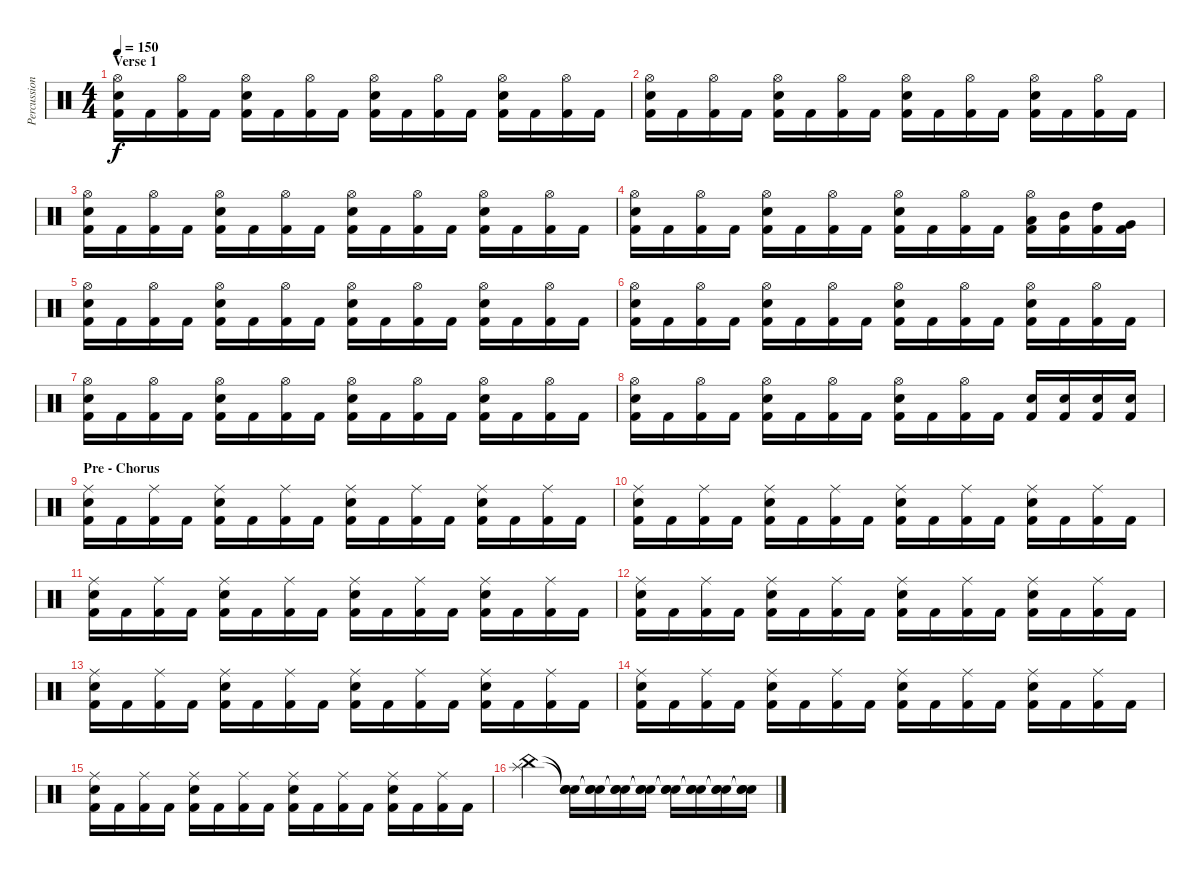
\track ("Percussion" "Percussion") {instrument percussion}
\staff {score}
\articulation defaults
\ts (4 4)
\section ("" "Verse 1")
\tempo 150
\clef neutral
\ks c
("Hi-Hat (open)" "Snare (hit) 2" "Kick (hit) 2").16{dy f} "Kick (hit) 2".16 ("Hi-Hat (open)" "Kick (hit) 2").16 "Kick (hit) 2".16 ("Hi-Hat (open)" "Snare (hit) 2" "Kick (hit) 2").16 "Kick (hit) 2".16 ("Hi-Hat (open)" "Kick (hit) 2").16 "Kick (hit) 2".16 ("Hi-Hat (open)" "Snare (hit) 2" "Kick (hit) 2").16 "Kick (hit) 2".16 ("Hi-Hat (open)" "Kick (hit) 2").16 "Kick (hit) 2".16 ("Hi-Hat (open)" "Snare (hit) 2" "Kick (hit) 2").16 "Kick (hit) 2".16 ("Hi-Hat (open)" "Kick (hit) 2").16 "Kick (hit) 2".16 |
("Hi-Hat (open)" "Snare (hit) 2" "Kick (hit) 2").16 "Kick (hit) 2".16 ("Hi-Hat (open)" "Kick (hit) 2").16 "Kick (hit) 2".16 ("Hi-Hat (open)" "Snare (hit) 2" "Kick (hit) 2").16 "Kick (hit) 2".16 ("Hi-Hat (open)" "Kick (hit) 2").16 "Kick (hit) 2".16 ("Hi-Hat (open)" "Snare (hit) 2" "Kick (hit) 2").16 "Kick (hit) 2".16 ("Hi-Hat (open)" "Kick (hit) 2").16 "Kick (hit) 2".16 ("Hi-Hat (open)" "Snare (hit) 2" "Kick (hit) 2").16 "Kick (hit) 2".16 ("Hi-Hat (open)" "Kick (hit) 2").16 "Kick (hit) 2".16 |
("Hi-Hat (open)" "Snare (hit) 2" "Kick (hit) 2").16 "Kick (hit) 2".16 ("Hi-Hat (open)" "Kick (hit) 2").16 "Kick (hit) 2".16 ("Hi-Hat (open)" "Snare (hit) 2" "Kick (hit) 2").16 "Kick (hit) 2".16 ("Hi-Hat (open)" "Kick (hit) 2").16 "Kick (hit) 2".16 ("Hi-Hat (open)" "Snare (hit) 2" "Kick (hit) 2").16 "Kick (hit) 2".16 ("Hi-Hat (open)" "Kick (hit) 2").16 "Kick (hit) 2".16 ("Hi-Hat (open)" "Snare (hit) 2" "Kick (hit) 2").16 "Kick (hit) 2".16 ("Hi-Hat (open)" "Kick (hit) 2").16 "Kick (hit) 2".16 |
("Hi-Hat (open)" "Snare (hit) 2" "Kick (hit) 2").16 "Kick (hit) 2".16 ("Hi-Hat (open)" "Kick (hit) 2").16 "Kick (hit) 2".16 ("Hi-Hat (open)" "Snare (hit) 2" "Kick (hit) 2").16 "Kick (hit) 2".16 ("Hi-Hat (open)" "Kick (hit) 2").16 "Kick (hit) 2".16 ("Hi-Hat (open)" "Snare (hit) 2" "Kick (hit) 2").16 "Kick (hit) 2".16 ("Hi-Hat (open)" "Kick (hit) 2").16 "Kick (hit) 2".16 ("Hi-Hat (open)" "Low Tom (hit)" "Kick (hit) 2").16 ("Mid Tom (hit)" "Kick (hit) 2").16 ("High Tom (hit)" "Kick (hit) 2").16 ("Very Low Tom (hit)" "Kick (hit) 2").16 |
("Hi-Hat (open)" "Snare (hit) 2" "Kick (hit) 2").16 "Kick (hit) 2".16 ("Hi-Hat (open)" "Kick (hit) 2").16 "Kick (hit) 2".16 ("Hi-Hat (open)" "Snare (hit) 2" "Kick (hit) 2").16 "Kick (hit) 2".16 ("Hi-Hat (open)" "Kick (hit) 2").16 "Kick (hit) 2".16 ("Hi-Hat (open)" "Snare (hit) 2" "Kick (hit) 2").16 "Kick (hit) 2".16 ("Hi-Hat (open)" "Kick (hit) 2").16 "Kick (hit) 2".16 ("Hi-Hat (open)" "Snare (hit) 2" "Kick (hit) 2").16 "Kick (hit) 2".16 ("Hi-Hat (open)" "Kick (hit) 2").16 "Kick (hit) 2".16 |
("Hi-Hat (open)" "Snare (hit) 2" "Kick (hit) 2").16 "Kick (hit) 2".16 ("Hi-Hat (open)" "Kick (hit) 2").16 "Kick (hit) 2".16 ("Hi-Hat (open)" "Snare (hit) 2" "Kick (hit) 2").16 "Kick (hit) 2".16 ("Hi-Hat (open)" "Kick (hit) 2").16 "Kick (hit) 2".16 ("Hi-Hat (open)" "Snare (hit) 2" "Kick (hit) 2").16 "Kick (hit) 2".16 ("Hi-Hat (open)" "Kick (hit) 2").16 "Kick (hit) 2".16 ("Hi-Hat (open)" "Snare (hit) 2" "Kick (hit) 2").16 "Kick (hit) 2".16 ("Hi-Hat (open)" "Kick (hit) 2").16 "Kick (hit) 2".16 |
("Hi-Hat (open)" "Snare (hit) 2" "Kick (hit) 2").16 "Kick (hit) 2".16 ("Hi-Hat (open)" "Kick (hit) 2").16 "Kick (hit) 2".16 ("Hi-Hat (open)" "Snare (hit) 2" "Kick (hit) 2").16 "Kick (hit) 2".16 ("Hi-Hat (open)" "Kick (hit) 2").16 "Kick (hit) 2".16 ("Hi-Hat (open)" "Snare (hit) 2" "Kick (hit) 2").16 "Kick (hit) 2".16 ("Hi-Hat (open)" "Kick (hit) 2").16 "Kick (hit) 2".16 ("Hi-Hat (open)" "Snare (hit) 2" "Kick (hit) 2").16 "Kick (hit) 2".16 ("Hi-Hat (open)" "Kick (hit) 2").16 "Kick (hit) 2".16 |
("Hi-Hat (open)" "Snare (hit) 2" "Kick (hit) 2").16 "Kick (hit) 2".16 ("Hi-Hat (open)" "Kick (hit) 2").16 "Kick (hit) 2".16 ("Hi-Hat (open)" "Snare (hit) 2" "Kick (hit) 2").16 "Kick (hit) 2".16 ("Hi-Hat (open)" "Kick (hit) 2").16 "Kick (hit) 2".16 ("Hi-Hat (open)" "Snare (hit) 2" "Kick (hit) 2").16 "Kick (hit) 2".16 ("Hi-Hat (open)" "Kick (hit) 2").16 "Kick (hit) 2".16 ("Snare (hit) 2" "Kick (hit) 2").16 ("Snare (hit) 2" "Kick (hit) 2").16 ("Snare (hit) 2" "Kick (hit) 2").16 ("Snare (hit) 2" "Kick (hit) 2").16 |
\section ("" "Pre - Chorus")
("Ride (middle)" "Snare (hit) 2" "Kick (hit) 2").16 "Kick (hit) 2".16 ("Ride (middle)" "Kick (hit) 2").16 "Kick (hit) 2".16 ("Ride (middle)" "Snare (hit) 2" "Kick (hit) 2").16 "Kick (hit) 2".16 ("Ride (middle)" "Kick (hit) 2").16 "Kick (hit) 2".16 ("Ride (middle)" "Snare (hit) 2" "Kick (hit) 2").16 "Kick (hit) 2".16 ("Ride (middle)" "Kick (hit) 2").16 "Kick (hit) 2".16 ("Ride (middle)" "Snare (hit) 2" "Kick (hit) 2").16 "Kick (hit) 2".16 ("Ride (middle)" "Kick (hit) 2").16 "Kick (hit) 2".16 |
("Ride (middle)" "Snare (hit) 2" "Kick (hit) 2").16 "Kick (hit) 2".16 ("Ride (middle)" "Kick (hit) 2").16 "Kick (hit) 2".16 ("Ride (middle)" "Snare (hit) 2" "Kick (hit) 2").16 "Kick (hit) 2".16 ("Ride (middle)" "Kick (hit) 2").16 "Kick (hit) 2".16 ("Ride (middle)" "Snare (hit) 2" "Kick (hit) 2").16 "Kick (hit) 2".16 ("Ride (middle)" "Kick (hit) 2").16 "Kick (hit) 2".16 ("Ride (middle)" "Snare (hit) 2" "Kick (hit) 2").16 "Kick (hit) 2".16 ("Ride (middle)" "Kick (hit) 2").16 "Kick (hit) 2".16 |
("Ride (middle)" "Snare (hit) 2" "Kick (hit) 2").16 "Kick (hit) 2".16 ("Ride (middle)" "Kick (hit) 2").16 "Kick (hit) 2".16 ("Ride (middle)" "Snare (hit) 2" "Kick (hit) 2").16 "Kick (hit) 2".16 ("Ride (middle)" "Kick (hit) 2").16 "Kick (hit) 2".16 ("Ride (middle)" "Snare (hit) 2" "Kick (hit) 2").16 "Kick (hit) 2".16 ("Ride (middle)" "Kick (hit) 2").16 "Kick (hit) 2".16 ("Ride (middle)" "Snare (hit) 2" "Kick (hit) 2").16 "Kick (hit) 2".16 ("Ride (middle)" "Kick (hit) 2").16 "Kick (hit) 2".16 |
("Ride (middle)" "Snare (hit) 2" "Kick (hit) 2").16 "Kick (hit) 2".16 ("Ride (middle)" "Kick (hit) 2").16 "Kick (hit) 2".16 ("Ride (middle)" "Snare (hit) 2" "Kick (hit) 2").16 "Kick (hit) 2".16 ("Ride (middle)" "Kick (hit) 2").16 "Kick (hit) 2".16 ("Ride (middle)" "Snare (hit) 2" "Kick (hit) 2").16 "Kick (hit) 2".16 ("Ride (middle)" "Kick (hit) 2").16 "Kick (hit) 2".16 ("Ride (middle)" "Snare (hit) 2" "Kick (hit) 2").16 "Kick (hit) 2".16 ("Ride (middle)" "Kick (hit) 2").16 "Kick (hit) 2".16 |
("Ride (middle)" "Snare (hit) 2" "Kick (hit) 2").16 "Kick (hit) 2".16 ("Ride (middle)" "Kick (hit) 2").16 "Kick (hit) 2".16 ("Ride (middle)" "Snare (hit) 2" "Kick (hit) 2").16 "Kick (hit) 2".16 ("Ride (middle)" "Kick (hit) 2").16 "Kick (hit) 2".16 ("Ride (middle)" "Snare (hit) 2" "Kick (hit) 2").16 "Kick (hit) 2".16 ("Ride (middle)" "Kick (hit) 2").16 "Kick (hit) 2".16 ("Ride (middle)" "Snare (hit) 2" "Kick (hit) 2").16 "Kick (hit) 2".16 ("Ride (middle)" "Kick (hit) 2").16 "Kick (hit) 2".16 |
("Ride (middle)" "Snare (hit) 2" "Kick (hit) 2").16 "Kick (hit) 2".16 ("Ride (middle)" "Kick (hit) 2").16 "Kick (hit) 2".16 ("Ride (middle)" "Snare (hit) 2" "Kick (hit) 2").16 "Kick (hit) 2".16 ("Ride (middle)" "Kick (hit) 2").16 "Kick (hit) 2".16 ("Ride (middle)" "Snare (hit) 2" "Kick (hit) 2").16 "Kick (hit) 2".16 ("Ride (middle)" "Kick (hit) 2").16 "Kick (hit) 2".16 ("Ride (middle)" "Snare (hit) 2" "Kick (hit) 2").16 "Kick (hit) 2".16 ("Ride (middle)" "Kick (hit) 2").16 "Kick (hit) 2".16 |
("Ride (middle)" "Snare (hit) 2" "Kick (hit) 2").16 "Kick (hit) 2".16 ("Ride (middle)" "Kick (hit) 2").16 "Kick (hit) 2".16 ("Ride (middle)" "Snare (hit) 2" "Kick (hit) 2").16 "Kick (hit) 2".16 ("Ride (middle)" "Kick (hit) 2").16 "Kick (hit) 2".16 ("Ride (middle)" "Snare (hit) 2" "Kick (hit) 2").16 "Kick (hit) 2".16 ("Ride (middle)" "Kick (hit) 2").16 "Kick (hit) 2".16 ("Ride (middle)" "Snare (hit) 2" "Kick (hit) 2").16 "Kick (hit) 2".16 ("Ride (middle)" "Kick (hit) 2").16 "Kick (hit) 2".16 |
("Splash (hit)" "China (hit)").2 ("Snare (hit)"{t} "Snare (hit)"{t} "Snare (hit) 2").16 ("Snare (hit)"{t} "Snare (hit)"{t} "Snare (hit) 2").16 ("Snare (hit)"{t} "Snare (hit)"{t} "Snare (hit) 2").16 ("Snare (hit)"{t} "Snare (hit)"{t} "Snare (hit) 2").16 ("Snare (hit)"{t} "Snare (hit)"{t} "Snare (hit) 2").16 ("Snare (hit)"{t} "Snare (hit)"{t} "Snare (hit) 2").16 ("Snare (hit)"{t} "Snare (hit)"{t} "Snare (hit) 2").16 ("Snare (hit)"{t} "Snare (hit)"{t} "Snare (hit) 2").16
